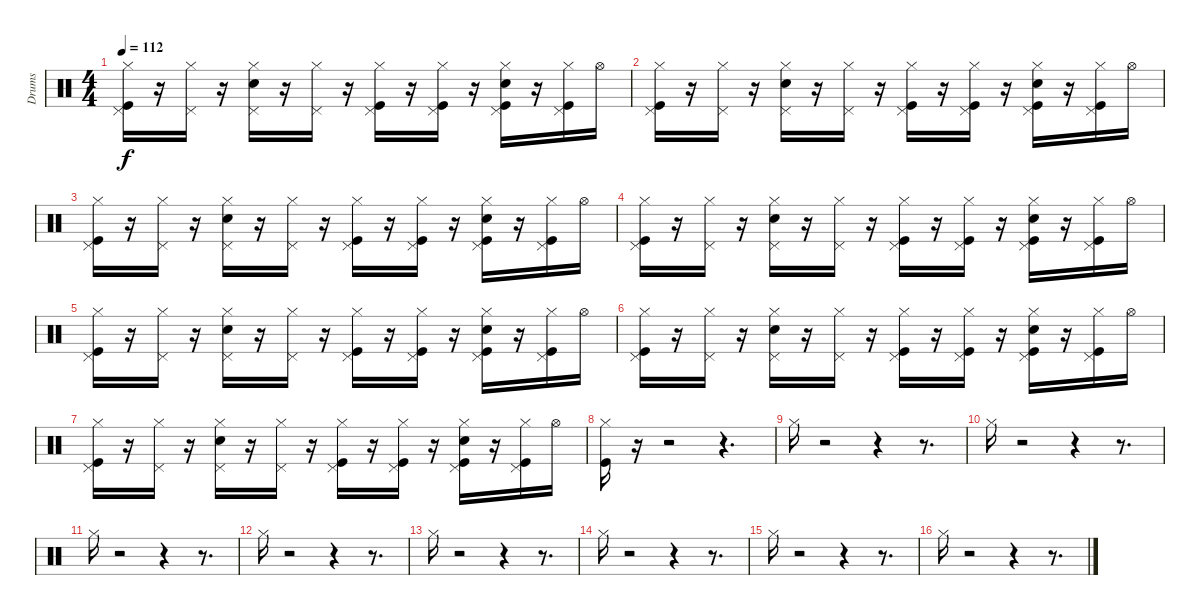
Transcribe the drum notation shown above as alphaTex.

\track ("Drums" "Drums") {instrument percussion}
\staff {score}
\articulation defaults
\ts (4 4)
\tempo 112
\clef neutral
\ks c
("Hi-Hat (closed)" "Kick (hit)" "Pedal Hi-Hat (hit)").16{dy f} r.16 ("Pedal Hi-Hat (hit)" "Hi-Hat (closed)").16 r.16 ("Hi-Hat (closed)" "Pedal Hi-Hat (hit)" "Snare (hit) 2").16 r.16 ("Hi-Hat (closed)" "Pedal Hi-Hat (hit)").16 r.16 ("Hi-Hat (closed)" "Pedal Hi-Hat (hit)" "Kick (hit)").16 r.16 ("Hi-Hat (closed)" "Pedal Hi-Hat (hit)" "Kick (hit)").16 r.16 ("Hi-Hat (closed)" "Pedal Hi-Hat (hit)" "Kick (hit)" "Snare (hit) 2").16 r.16 ("Hi-Hat (closed)" "Kick (hit)" "Pedal Hi-Hat (hit)").16 "Hi-Hat (open)".16 |
("Hi-Hat (closed)" "Kick (hit)" "Pedal Hi-Hat (hit)").16 r.16 ("Pedal Hi-Hat (hit)" "Hi-Hat (closed)").16 r.16 ("Hi-Hat (closed)" "Pedal Hi-Hat (hit)" "Snare (hit) 2").16 r.16 ("Hi-Hat (closed)" "Pedal Hi-Hat (hit)").16 r.16 ("Hi-Hat (closed)" "Pedal Hi-Hat (hit)" "Kick (hit)").16 r.16 ("Hi-Hat (closed)" "Pedal Hi-Hat (hit)" "Kick (hit)").16 r.16 ("Hi-Hat (closed)" "Pedal Hi-Hat (hit)" "Kick (hit)" "Snare (hit) 2").16 r.16 ("Hi-Hat (closed)" "Kick (hit)" "Pedal Hi-Hat (hit)").16 "Hi-Hat (open)".16 |
("Hi-Hat (closed)" "Kick (hit)" "Pedal Hi-Hat (hit)").16 r.16 ("Pedal Hi-Hat (hit)" "Hi-Hat (closed)").16 r.16 ("Hi-Hat (closed)" "Pedal Hi-Hat (hit)" "Snare (hit) 2").16 r.16 ("Hi-Hat (closed)" "Pedal Hi-Hat (hit)").16 r.16 ("Hi-Hat (closed)" "Pedal Hi-Hat (hit)" "Kick (hit)").16 r.16 ("Hi-Hat (closed)" "Pedal Hi-Hat (hit)" "Kick (hit)").16 r.16 ("Hi-Hat (closed)" "Pedal Hi-Hat (hit)" "Kick (hit)" "Snare (hit) 2").16 r.16 ("Hi-Hat (closed)" "Kick (hit)" "Pedal Hi-Hat (hit)").16 "Hi-Hat (open)".16 |
("Hi-Hat (closed)" "Kick (hit)" "Pedal Hi-Hat (hit)").16 r.16 ("Pedal Hi-Hat (hit)" "Hi-Hat (closed)").16 r.16 ("Hi-Hat (closed)" "Pedal Hi-Hat (hit)" "Snare (hit) 2").16 r.16 ("Hi-Hat (closed)" "Pedal Hi-Hat (hit)").16 r.16 ("Hi-Hat (closed)" "Pedal Hi-Hat (hit)" "Kick (hit)").16 r.16 ("Hi-Hat (closed)" "Pedal Hi-Hat (hit)" "Kick (hit)").16 r.16 ("Hi-Hat (closed)" "Pedal Hi-Hat (hit)" "Kick (hit)" "Snare (hit) 2").16 r.16 ("Hi-Hat (closed)" "Kick (hit)" "Pedal Hi-Hat (hit)").16 "Hi-Hat (open)".16 |
("Hi-Hat (closed)" "Kick (hit)" "Pedal Hi-Hat (hit)").16 r.16 ("Pedal Hi-Hat (hit)" "Hi-Hat (closed)").16 r.16 ("Hi-Hat (closed)" "Pedal Hi-Hat (hit)" "Snare (hit) 2").16 r.16 ("Hi-Hat (closed)" "Pedal Hi-Hat (hit)").16 r.16 ("Hi-Hat (closed)" "Pedal Hi-Hat (hit)" "Kick (hit)").16 r.16 ("Hi-Hat (closed)" "Pedal Hi-Hat (hit)" "Kick (hit)").16 r.16 ("Hi-Hat (closed)" "Pedal Hi-Hat (hit)" "Kick (hit)" "Snare (hit) 2").16 r.16 ("Hi-Hat (closed)" "Kick (hit)" "Pedal Hi-Hat (hit)").16 "Hi-Hat (open)".16 |
("Hi-Hat (closed)" "Kick (hit)" "Pedal Hi-Hat (hit)").16 r.16 ("Pedal Hi-Hat (hit)" "Hi-Hat (closed)").16 r.16 ("Hi-Hat (closed)" "Pedal Hi-Hat (hit)" "Snare (hit) 2").16 r.16 ("Hi-Hat (closed)" "Pedal Hi-Hat (hit)").16 r.16 ("Hi-Hat (closed)" "Pedal Hi-Hat (hit)" "Kick (hit)").16 r.16 ("Hi-Hat (closed)" "Pedal Hi-Hat (hit)" "Kick (hit)").16 r.16 ("Hi-Hat (closed)" "Pedal Hi-Hat (hit)" "Kick (hit)" "Snare (hit) 2").16 r.16 ("Hi-Hat (closed)" "Kick (hit)" "Pedal Hi-Hat (hit)").16 "Hi-Hat (open)".16 |
("Hi-Hat (closed)" "Kick (hit)" "Pedal Hi-Hat (hit)").16 r.16 ("Pedal Hi-Hat (hit)" "Hi-Hat (closed)").16 r.16 ("Hi-Hat (closed)" "Pedal Hi-Hat (hit)" "Snare (hit) 2").16 r.16 ("Hi-Hat (closed)" "Pedal Hi-Hat (hit)").16 r.16 ("Hi-Hat (closed)" "Pedal Hi-Hat (hit)" "Kick (hit)").16 r.16 ("Hi-Hat (closed)" "Pedal Hi-Hat (hit)" "Kick (hit)").16 r.16 ("Hi-Hat (closed)" "Pedal Hi-Hat (hit)" "Kick (hit)" "Snare (hit) 2").16 r.16 ("Hi-Hat (closed)" "Kick (hit)" "Pedal Hi-Hat (hit)").16 "Hi-Hat (open)".16 |
("Kick (hit)" "Hi-Hat (closed)").16 r.16 r.2 r.4{d} |
"Hi-Hat (closed)".16 r.2 r.4 r.8{d} |
"Hi-Hat (closed)".16 r.2 r.4 r.8{d} |
"Hi-Hat (closed)".16 r.2 r.4 r.8{d} |
"Hi-Hat (closed)".16 r.2 r.4 r.8{d} |
"Hi-Hat (closed)".16 r.2 r.4 r.8{d} |
"Hi-Hat (closed)".16 r.2 r.4 r.8{d} |
"Hi-Hat (closed)".16 r.2 r.4 r.8{d} |
"Hi-Hat (closed)".16 r.2 r.4 r.8{d}
